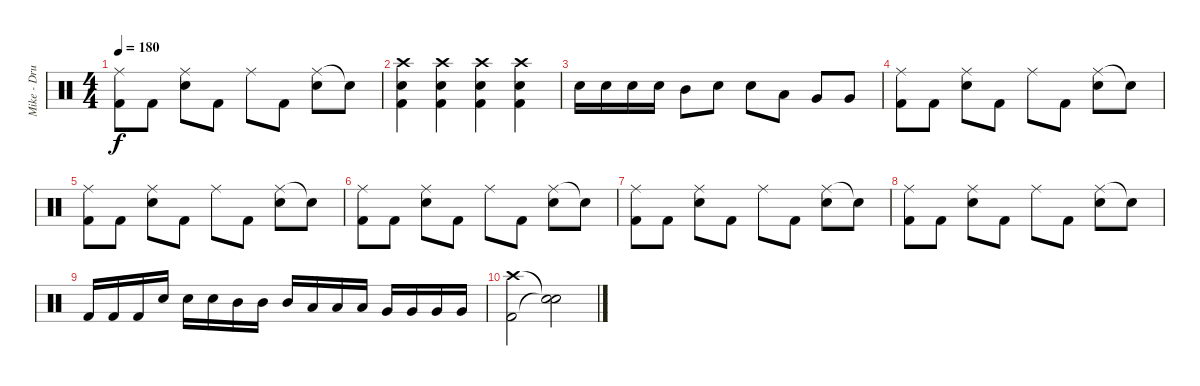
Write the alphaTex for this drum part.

\track ("Mike - Drums" "Mike - Dru") {instrument percussion}
\staff {score}
\articulation defaults
\ts (4 4)
\tempo 180
\clef neutral
\ks c
("Ride (middle)" "Kick (hit) 2").8{dy f} "Kick (hit) 2".8 ("Ride (middle)" "Snare (hit) 2").8 "Kick (hit) 2".8 "Ride (middle)".8 "Kick (hit) 2".8 ("Ride (middle)" "Snare (hit) 2").8 "Snare (hit)"{t}.8 |
("Crash high (hit)" "Snare (hit) 2" "Kick (hit) 2").4 ("Crash high (hit)" "Snare (hit) 2" "Kick (hit) 2").4 ("Crash high (hit)" "Snare (hit) 2" "Kick (hit) 2").4 ("Crash high (hit)" "Snare (hit) 2" "Kick (hit) 2").4 |
"Snare (hit) 2".16 "Snare (hit) 2".16 "Snare (hit) 2".16 "Snare (hit) 2".16 "Mid Tom (hit)".8 "Snare (hit) 2".8 "Snare (hit) 2".8 "Low Tom (hit)".8 "Very Low Tom (hit)".8 "Very Low Tom (hit)".8 |
("Ride (middle)" "Kick (hit) 2").8 "Kick (hit) 2".8 ("Ride (middle)" "Snare (hit) 2").8 "Kick (hit) 2".8 "Ride (middle)".8 "Kick (hit) 2".8 ("Ride (middle)" "Snare (hit) 2").8 "Snare (hit)"{t}.8 |
("Ride (middle)" "Kick (hit) 2").8 "Kick (hit) 2".8 ("Ride (middle)" "Snare (hit) 2").8 "Kick (hit) 2".8 "Ride (middle)".8 "Kick (hit) 2".8 ("Ride (middle)" "Snare (hit) 2").8 "Snare (hit)"{t}.8 |
("Ride (middle)" "Kick (hit) 2").8 "Kick (hit) 2".8 ("Ride (middle)" "Snare (hit) 2").8 "Kick (hit) 2".8 "Ride (middle)".8 "Kick (hit) 2".8 ("Ride (middle)" "Snare (hit) 2").8 "Snare (hit)"{t}.8 |
("Ride (middle)" "Kick (hit) 2").8 "Kick (hit) 2".8 ("Ride (middle)" "Snare (hit) 2").8 "Kick (hit) 2".8 "Ride (middle)".8 "Kick (hit) 2".8 ("Ride (middle)" "Snare (hit) 2").8 "Snare (hit)"{t}.8 |
("Ride (middle)" "Kick (hit) 2").8 "Kick (hit) 2".8 ("Ride (middle)" "Snare (hit) 2").8 "Kick (hit) 2".8 "Ride (middle)".8 "Kick (hit) 2".8 ("Ride (middle)" "Snare (hit) 2").8 "Snare (hit)"{t}.8 |
"Kick (hit) 2".16 "Kick (hit) 2".16 "Kick (hit) 2".16 "Snare (hit) 2".16 "Snare (hit) 2".16 "Snare (hit) 2".16 "Mid Tom (hit)".16 "Mid Tom (hit)".16 "Mid Tom (hit)".16 "Low Tom (hit)".16 "Low Tom (hit)".16 "Low Tom (hit)".16 "Very Low Tom (hit)".16 "Very Low Tom (hit)".16 "Very Low Tom (hit)".16 "Very Low Tom (hit)".16 |
("Crash high (hit)" "Kick (hit) 2").2 ("Snare (hit)"{t} "Snare (hit)"{t}).2
